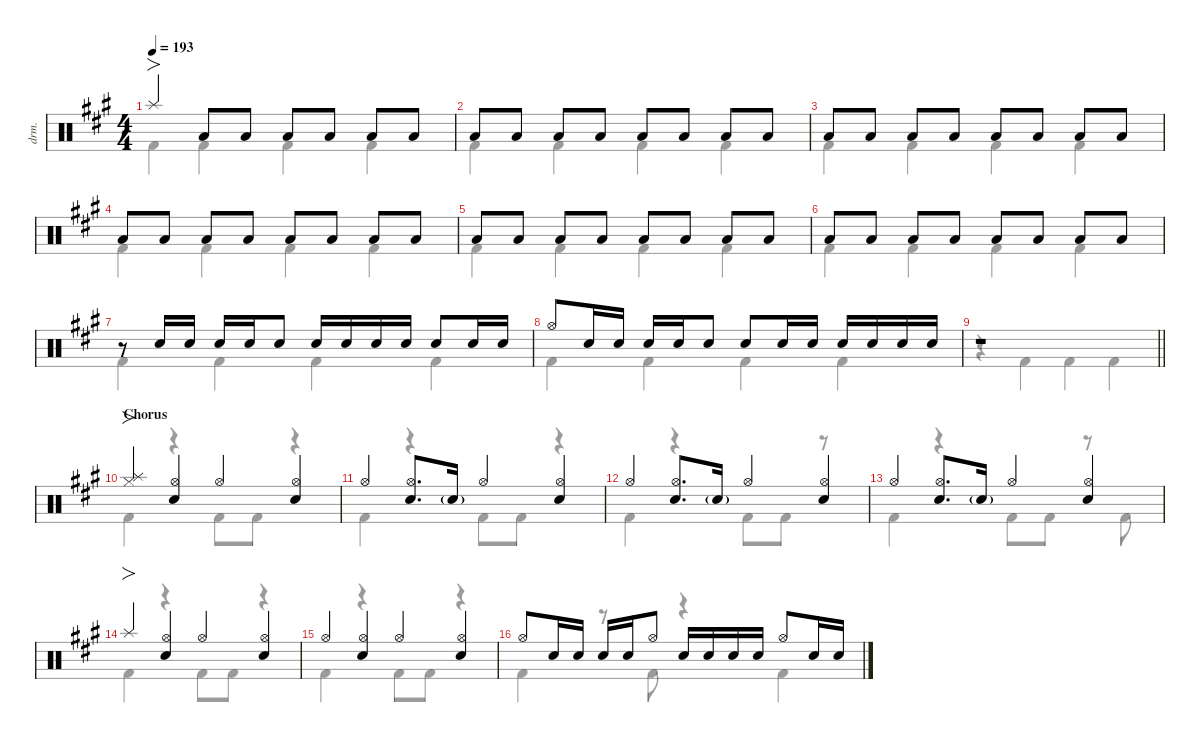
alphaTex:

\defaultSystemsLayout 4
\hideDynamics
\bracketExtendMode nobrackets
\track ("伊地知虹夏" "drm.") {instrument percussion}
\staff {score}
\articulation defaults
\voice
\ts (4 4)
\tempo 193
\clef neutral
\ks a "Splash (hit)"{acc forcenatural}.4{fo dy mf beam Up} "Low Tom (hit)"{acc forcenatural}.8{beam Up} "Low Tom (hit)"{acc forcenatural}.8{beam Up} "Low Tom (hit)"{acc forcenatural}.8{beam Up} "Low Tom (hit)"{acc forcenatural}.8{beam Up} "Low Tom (hit)"{acc forcenatural}.8{beam Up} "Low Tom (hit)"{acc forcenatural}.8{beam Up}
|
"Low Tom (hit)"{acc forcenatural}.8{beam Up} "Low Tom (hit)"{acc forcenatural}.8{beam Up} "Low Tom (hit)"{acc forcenatural}.8{beam Up} "Low Tom (hit)"{acc forcenatural}.8{beam Up} "Low Tom (hit)"{acc forcenatural}.8{beam Up} "Low Tom (hit)"{acc forcenatural}.8{beam Up} "Low Tom (hit)"{acc forcenatural}.8{beam Up} "Low Tom (hit)"{acc forcenatural}.8{beam Up} |
"Low Tom (hit)"{acc forcenatural}.8{beam Up} "Low Tom (hit)"{acc forcenatural}.8{beam Up} "Low Tom (hit)"{acc forcenatural}.8{beam Up} "Low Tom (hit)"{acc forcenatural}.8{beam Up} "Low Tom (hit)"{acc forcenatural}.8{beam Up} "Low Tom (hit)"{acc forcenatural}.8{beam Up} "Low Tom (hit)"{acc forcenatural}.8{beam Up} "Low Tom (hit)"{acc forcenatural}.8{beam Up} |
"Low Tom (hit)"{acc forcenatural}.8{beam Up} "Low Tom (hit)"{acc forcenatural}.8{beam Up} "Low Tom (hit)"{acc forcenatural}.8{beam Up} "Low Tom (hit)"{acc forcenatural}.8{beam Up} "Low Tom (hit)"{acc forcenatural}.8{beam Up} "Low Tom (hit)"{acc forcenatural}.8{beam Up} "Low Tom (hit)"{acc forcenatural}.8{beam Up} "Low Tom (hit)"{acc forcenatural}.8{beam Up} |
"Low Tom (hit)"{acc forcenatural}.8{beam Up} "Low Tom (hit)"{acc forcenatural}.8{beam Up} "Low Tom (hit)"{acc forcenatural}.8{beam Up} "Low Tom (hit)"{acc forcenatural}.8{beam Up} "Low Tom (hit)"{acc forcenatural}.8{beam Up} "Low Tom (hit)"{acc forcenatural}.8{beam Up} "Low Tom (hit)"{acc forcenatural}.8{beam Up} "Low Tom (hit)"{acc forcenatural}.8{beam Up} |
"Low Tom (hit)"{acc forcenatural}.8{beam Up} "Low Tom (hit)"{acc forcenatural}.8{beam Up} "Low Tom (hit)"{acc forcenatural}.8{beam Up} "Low Tom (hit)"{acc forcenatural}.8{beam Up} "Low Tom (hit)"{acc forcenatural}.8{beam Up} "Low Tom (hit)"{acc forcenatural}.8{beam Up} "Low Tom (hit)"{acc forcenatural}.8{beam Up} "Low Tom (hit)"{acc forcenatural}.8{beam Up} |
r.8{beam Up} "Snare (hit) 2"{acc forcenatural}.16{beam Up} "Snare (hit) 2"{acc forcenatural}.16{beam Up} "Snare (hit) 2"{acc forcenatural}.16{beam Up} "Snare (hit) 2"{acc forcenatural}.16{beam Up} "Snare (hit) 2"{acc forcenatural}.8{beam Up} "Snare (hit) 2"{acc forcenatural}.16{beam Up} "Snare (hit) 2"{acc forcenatural}.16{beam Up} "Snare (hit) 2"{acc forcenatural}.16{beam Up} "Snare (hit) 2"{acc forcenatural}.16{beam Up} "Snare (hit) 2"{acc forcenatural}.8{beam Up} "Snare (hit) 2"{acc forcenatural}.16{beam Up} "Snare (hit) 2"{acc forcenatural}.16{beam Up} |
"Hi-Hat (open)"{acc forcenatural}.8{beam Up} "Snare (hit) 2"{acc forcenatural}.16{beam Up} "Snare (hit) 2"{acc forcenatural}.16{beam Up} "Snare (hit) 2"{acc forcenatural}.16{beam Up} "Snare (hit) 2"{acc forcenatural}.16{beam Up} "Snare (hit) 2"{acc forcenatural}.8{beam Up} "Snare (hit) 2"{acc forcenatural}.8{beam Up} "Snare (hit) 2"{acc forcenatural}.16{beam Up} "Snare (hit) 2"{acc forcenatural}.16{beam Up} "Snare (hit) 2"{acc forcenatural}.16{beam Up} "Snare (hit) 2"{acc forcenatural}.16{beam Up} "Snare (hit) 2"{acc forcenatural}.16{beam Up} "Snare (hit) 2"{acc forcenatural}.16{beam Up} |
\barLineRight lightlight
r.1{beam Up} |
\section ("" "Chorus")
("Hi-Hat (closed)"{acc forcenatural} "Splash (hit)"{acc forcenatural}).4{fo beam Up} ("Hi-Hat (open)"{acc forcenatural} "Snare (hit) 2"{acc forcenatural}).4{beam Up} "Hi-Hat (open)"{acc forcenatural}.4{beam Up} ("Hi-Hat (open)"{acc forcenatural} "Snare (hit) 2"{acc forcenatural}).4{beam Up} |
"Hi-Hat (open)"{acc forcenatural}.4{beam Up} ("Hi-Hat (open)"{acc forcenatural} "Snare (hit) 2"{acc forcenatural}).8{d beam Up} "Snare (hit) 2"{g acc forcenatural}.16{beam Up} "Hi-Hat (open)"{acc forcenatural}.4{beam Up} ("Hi-Hat (open)"{acc forcenatural} "Snare (hit) 2"{acc forcenatural}).4{beam Up} |
"Hi-Hat (open)"{acc forcenatural}.4{beam Up} ("Hi-Hat (open)"{acc forcenatural} "Snare (hit) 2"{acc forcenatural}).8{d beam Up} "Snare (hit) 2"{g acc forcenatural}.16{beam Up} "Hi-Hat (open)"{acc forcenatural}.4{beam Up} ("Snare (hit) 2"{acc forcenatural} "Hi-Hat (open)"{acc forcenatural}).4{beam Up} |
"Hi-Hat (open)"{acc forcenatural}.4{beam Up} ("Hi-Hat (open)"{acc forcenatural} "Snare (hit) 2"{acc forcenatural}).8{d beam Up} "Snare (hit) 2"{g acc forcenatural}.16{beam Up} "Hi-Hat (open)"{acc forcenatural}.4{beam Up} ("Snare (hit) 2"{acc forcenatural} "Hi-Hat (open)"{acc forcenatural}).4{beam Up} |
"Splash (hit)"{acc forcenatural}.4{fo beam Up} ("Hi-Hat (open)"{acc forcenatural} "Snare (hit) 2"{acc forcenatural}).4{beam Up} "Hi-Hat (open)"{acc forcenatural}.4{beam Up} ("Hi-Hat (open)"{acc forcenatural} "Snare (hit) 2"{acc forcenatural}).4{beam Up} |
"Hi-Hat (open)"{acc forcenatural}.4{beam Up} ("Hi-Hat (open)"{acc forcenatural} "Snare (hit) 2"{acc forcenatural}).4{beam Up} "Hi-Hat (open)"{acc forcenatural}.4{beam Up} ("Hi-Hat (open)"{acc forcenatural} "Snare (hit) 2"{acc forcenatural}).4{beam Up} |
"Hi-Hat (open)"{acc forcenatural}.8{beam Up} "Snare (hit) 2"{acc forcenatural}.16{beam Up} "Snare (hit) 2"{acc forcenatural}.16{beam Up} "Snare (hit) 2"{acc forcenatural}.16{beam Up} "Snare (hit) 2"{acc forcenatural}.16{beam Up} "Hi-Hat (open)"{acc forcenatural}.8{beam Up} "Snare (hit) 2"{acc forcenatural}.16{beam Up} "Snare (hit) 2"{acc forcenatural}.16{beam Up} "Snare (hit) 2"{acc forcenatural}.16{beam Up} "Snare (hit) 2"{acc forcenatural}.16{beam Up} "Hi-Hat (open)"{acc forcenatural}.8{beam Up} "Snare (hit) 2"{acc forcenatural}.16{beam Up} "Snare (hit) 2"{acc forcenatural}.16{beam Up}
\voice
\clef neutral
\ottava regular
\simile none
\ks a "Kick (hit) 2"{acc forcenatural}.4{dy mf beam Down} "Kick (hit) 2"{acc forcenatural}.4{beam Down} "Kick (hit) 2"{acc forcenatural}.4{beam Down} "Kick (hit) 2"{acc forcenatural}.4{beam Down}
|
"Kick (hit) 2"{acc forcenatural}.4{beam Down} "Kick (hit) 2"{acc forcenatural}.4{beam Down} "Kick (hit) 2"{acc forcenatural}.4{beam Down} "Kick (hit) 2"{acc forcenatural}.4{beam Down} |
"Kick (hit) 2"{acc forcenatural}.4{beam Down} "Kick (hit) 2"{acc forcenatural}.4{beam Down} "Kick (hit) 2"{acc forcenatural}.4{beam Down} "Kick (hit) 2"{acc forcenatural}.4{beam Down} |
"Kick (hit) 2"{acc forcenatural}.4{beam Down} "Kick (hit) 2"{acc forcenatural}.4{beam Down} "Kick (hit) 2"{acc forcenatural}.4{beam Down} "Kick (hit) 2"{acc forcenatural}.4{beam Down} |
"Kick (hit) 2"{acc forcenatural}.4{beam Down} "Kick (hit) 2"{acc forcenatural}.4{beam Down} "Kick (hit) 2"{acc forcenatural}.4{beam Down} "Kick (hit) 2"{acc forcenatural}.4{beam Down} |
"Kick (hit) 2"{acc forcenatural}.4{beam Down} "Kick (hit) 2"{acc forcenatural}.4{beam Down} "Kick (hit) 2"{acc forcenatural}.4{beam Down} "Kick (hit) 2"{acc forcenatural}.4{beam Down} |
"Kick (hit) 2"{acc forcenatural}.4{beam Down} "Kick (hit) 2"{acc forcenatural}.4{beam Down} "Kick (hit) 2"{acc forcenatural}.4{beam Down} "Kick (hit) 2"{acc forcenatural}.4{beam Down} |
"Kick (hit) 2"{acc forcenatural}.4{beam Down} "Kick (hit) 2"{acc forcenatural}.4{beam Down} "Kick (hit) 2"{acc forcenatural}.4{beam Down} "Kick (hit) 2"{acc forcenatural}.4{beam Down} |
\barLineRight lightlight
r.4{beam Down} "Kick (hit) 2"{acc forcenatural}.4{beam Down} "Kick (hit) 2"{acc forcenatural}.4{beam Down} "Kick (hit) 2"{acc forcenatural}.4{beam Down} |
"Kick (hit) 2"{acc forcenatural}.4{beam Down} r.4{beam Down} "Kick (hit) 2"{acc forcenatural}.8{beam Down} "Kick (hit) 2"{acc forcenatural}.8{beam Down} r.4{beam Down} |
"Kick (hit) 2"{acc forcenatural}.4{beam Down} r.4{beam Down} "Kick (hit) 2"{acc forcenatural}.8{beam Down} "Kick (hit) 2"{acc forcenatural}.8{beam Down} r.4{beam Down} |
"Kick (hit) 2"{acc forcenatural}.4{beam Down} r.4{beam Down} "Kick (hit) 2"{acc forcenatural}.8{beam Down} "Kick (hit) 2"{acc forcenatural}.8{beam Down} r.8{beam Down} |
"Kick (hit) 2"{acc forcenatural}.4{beam Down} r.4{beam Down} "Kick (hit) 2"{acc forcenatural}.8{beam Down} "Kick (hit) 2"{acc forcenatural}.8{beam Down} r.8{beam Down} "Kick (hit) 2"{acc forcenatural}.8{beam Down} |
"Kick (hit) 2"{acc forcenatural}.4{beam Down} r.4{beam Down} "Kick (hit) 2"{acc forcenatural}.8{beam Down} "Kick (hit) 2"{acc forcenatural}.8{beam Down} r.4{beam Down} |
"Kick (hit) 2"{acc forcenatural}.4{beam Down} r.4{beam Down} "Kick (hit) 2"{acc forcenatural}.8{beam Down} "Kick (hit) 2"{acc forcenatural}.8{beam Down} r.4{beam Down} |
"Kick (hit) 2"{acc forcenatural}.4{beam Down} r.8{beam Down} "Kick (hit) 2"{acc forcenatural}.8{beam Down} r.4{beam Down} "Kick (hit) 2"{acc forcenatural}.4{beam Down}
